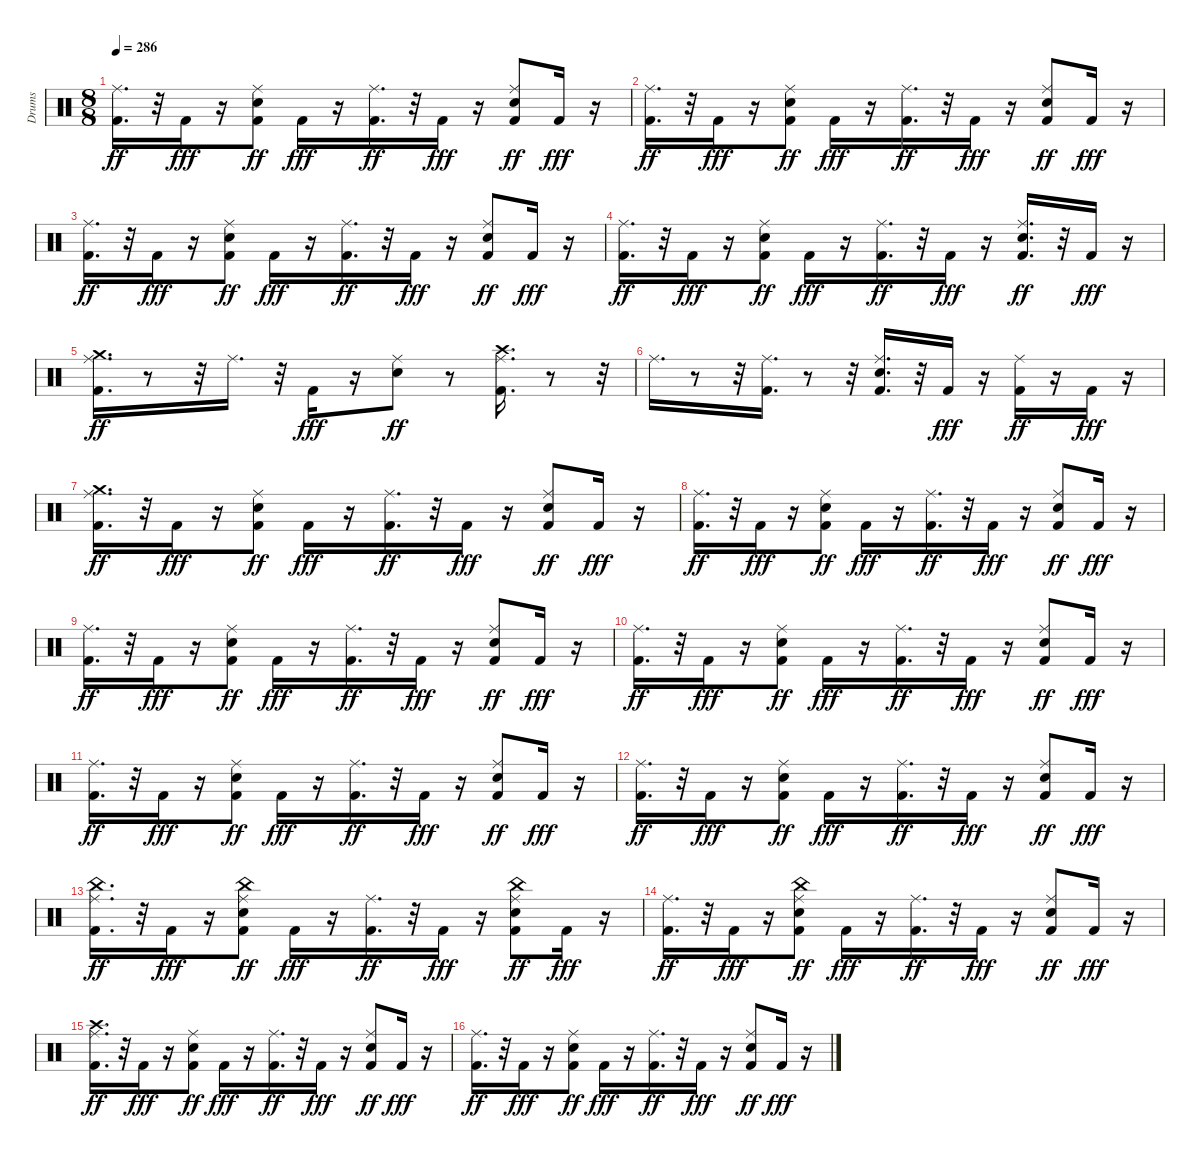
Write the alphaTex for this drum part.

\track ("Drums" "Drums") {instrument percussion}
\staff {score}
\articulation defaults
\ts (8 8)
\tempo 286
\clef neutral
\ks c
("Kick (hit) 2" "Ride (middle)").16{d dy ff} r.32 "Kick (hit) 2".16{dy fff} r.16 ("Kick (hit) 2" "Snare (hit) 2" "Ride (middle)").8{dy ff} "Kick (hit) 2".16{dy fff} r.16 ("Kick (hit) 2" "Ride (middle)").16{d dy ff} r.32 "Kick (hit) 2".16{dy fff} r.16 ("Kick (hit) 2" "Snare (hit) 2" "Ride (middle)").8{dy ff} "Kick (hit) 2".16{dy fff} r.16 |
("Kick (hit) 2" "Ride (middle)").16{d dy ff} r.32 "Kick (hit) 2".16{dy fff} r.16 ("Kick (hit) 2" "Snare (hit) 2" "Ride (middle)").8{dy ff} "Kick (hit) 2".16{dy fff} r.16 ("Kick (hit) 2" "Ride (middle)").16{d dy ff} r.32 "Kick (hit) 2".16{dy fff} r.16 ("Kick (hit) 2" "Snare (hit) 2" "Ride (middle)").8{dy ff} "Kick (hit) 2".16{dy fff} r.16 |
("Kick (hit) 2" "Ride (middle)").16{d dy ff} r.32 "Kick (hit) 2".16{dy fff} r.16 ("Kick (hit) 2" "Snare (hit) 2" "Ride (middle)").8{dy ff} "Kick (hit) 2".16{dy fff} r.16 ("Kick (hit) 2" "Ride (middle)").16{d dy ff} r.32 "Kick (hit) 2".16{dy fff} r.16 ("Kick (hit) 2" "Snare (hit) 2" "Ride (middle)").8{dy ff} "Kick (hit) 2".16{dy fff} r.16 |
("Kick (hit) 2" "Ride (middle)").16{d dy ff} r.32 "Kick (hit) 2".16{dy fff} r.16 ("Kick (hit) 2" "Snare (hit) 2" "Ride (middle)").8{dy ff} "Kick (hit) 2".16{dy fff} r.16 ("Kick (hit) 2" "Ride (middle)").16{d dy ff} r.32 "Kick (hit) 2".16{dy fff} r.16 ("Kick (hit) 2" "Snare (hit) 2" "Ride (middle)").16{d dy ff} r.32 "Kick (hit) 2".16{dy fff} r.16 |
("Kick (hit) 2" "Ride (middle)" "Crash medium (hit)").16{d dy ff} r.8 r.32 "Ride (middle)".16{d} r.32 "Kick (hit) 2".16{dy fff} r.16 ("Snare (hit) 2" "Ride (middle)").8{dy ff} r.8 ("Kick (hit) 2" "Ride (middle)" "Crash high (hit)").16{d} r.8 r.32 |
"Ride (middle)".16{d} r.8 r.32 ("Kick (hit) 2" "Ride (middle)").16{d} r.8 r.32 ("Kick (hit) 2" "Snare (hit) 2" "Ride (middle)").16{d} r.32 "Kick (hit) 2".16{dy fff} r.16 ("Kick (hit) 2" "Ride (middle)").16{dy ff} r.16 "Kick (hit) 2".16{dy fff} r.16 |
("Kick (hit) 2" "Ride (middle)" "Crash medium (hit)").16{d dy ff} r.32 "Kick (hit) 2".16{dy fff} r.16 ("Kick (hit) 2" "Snare (hit) 2" "Ride (middle)").8{dy ff} "Kick (hit) 2".16{dy fff} r.16 ("Kick (hit) 2" "Ride (middle)").16{d dy ff} r.32 "Kick (hit) 2".16{dy fff} r.16 ("Kick (hit) 2" "Snare (hit) 2" "Ride (middle)").8{dy ff} "Kick (hit) 2".16{dy fff} r.16 |
("Kick (hit) 2" "Ride (middle)").16{d dy ff} r.32 "Kick (hit) 2".16{dy fff} r.16 ("Kick (hit) 2" "Snare (hit) 2" "Ride (middle)").8{dy ff} "Kick (hit) 2".16{dy fff} r.16 ("Kick (hit) 2" "Ride (middle)").16{d dy ff} r.32 "Kick (hit) 2".16{dy fff} r.16 ("Kick (hit) 2" "Snare (hit) 2" "Ride (middle)").8{dy ff} "Kick (hit) 2".16{dy fff} r.16 |
("Kick (hit) 2" "Ride (middle)").16{d dy ff} r.32 "Kick (hit) 2".16{dy fff} r.16 ("Kick (hit) 2" "Snare (hit) 2" "Ride (middle)").8{dy ff} "Kick (hit) 2".16{dy fff} r.16 ("Kick (hit) 2" "Ride (middle)").16{d dy ff} r.32 "Kick (hit) 2".16{dy fff} r.16 ("Kick (hit) 2" "Snare (hit) 2" "Ride (middle)").8{dy ff} "Kick (hit) 2".16{dy fff} r.16 |
("Kick (hit) 2" "Ride (middle)").16{d dy ff} r.32 "Kick (hit) 2".16{dy fff} r.16 ("Kick (hit) 2" "Snare (hit) 2" "Ride (middle)").8{dy ff} "Kick (hit) 2".16{dy fff} r.16 ("Kick (hit) 2" "Ride (middle)").16{d dy ff} r.32 "Kick (hit) 2".16{dy fff} r.16 ("Kick (hit) 2" "Snare (hit) 2" "Ride (middle)").8{dy ff} "Kick (hit) 2".16{dy fff} r.16 |
("Kick (hit) 2" "Ride (middle)").16{d dy ff} r.32 "Kick (hit) 2".16{dy fff} r.16 ("Kick (hit) 2" "Snare (hit) 2" "Ride (middle)").8{dy ff} "Kick (hit) 2".16{dy fff} r.16 ("Kick (hit) 2" "Ride (middle)").16{d dy ff} r.32 "Kick (hit) 2".16{dy fff} r.16 ("Kick (hit) 2" "Snare (hit) 2" "Ride (middle)").8{dy ff} "Kick (hit) 2".16{dy fff} r.16 |
("Kick (hit) 2" "Ride (middle)").16{d dy ff} r.32 "Kick (hit) 2".16{dy fff} r.16 ("Kick (hit) 2" "Snare (hit) 2" "Ride (middle)").8{dy ff} "Kick (hit) 2".16{dy fff} r.16 ("Kick (hit) 2" "Ride (middle)").16{d dy ff} r.32 "Kick (hit) 2".16{dy fff} r.16 ("Kick (hit) 2" "Snare (hit) 2" "Ride (middle)").8{dy ff} "Kick (hit) 2".16{dy fff} r.16 |
("Kick (hit) 2" "Ride (middle)" "China (hit)").16{d dy ff} r.32 "Kick (hit) 2".16{dy fff} r.16 ("Kick (hit) 2" "Snare (hit) 2" "Ride (middle)" "China (hit)").8{dy ff} "Kick (hit) 2".16{dy fff} r.16 ("Kick (hit) 2" "Ride (middle)").16{d dy ff} r.32 "Kick (hit) 2".16{dy fff} r.16 ("Kick (hit) 2" "Snare (hit) 2" "Ride (middle)" "China (hit)").8{dy ff} "Kick (hit) 2".16{dy fff} r.16 |
("Kick (hit) 2" "Ride (middle)").16{d dy ff} r.32 "Kick (hit) 2".16{dy fff} r.16 ("Kick (hit) 2" "Snare (hit) 2" "Ride (middle)" "China (hit)").8{dy ff} "Kick (hit) 2".16{dy fff} r.16 ("Kick (hit) 2" "Ride (middle)").16{d dy ff} r.32 "Kick (hit) 2".16{dy fff} r.16 ("Kick (hit) 2" "Snare (hit) 2" "Ride (middle)").8{dy ff} "Kick (hit) 2".16{dy fff} r.16 |
("Kick (hit) 2" "Ride (middle)" "Crash high (hit)").16{d dy ff} r.32 "Kick (hit) 2".16{dy fff} r.16 ("Kick (hit) 2" "Snare (hit) 2" "Ride (middle)").8{dy ff} "Kick (hit) 2".16{dy fff} r.16 ("Kick (hit) 2" "Ride (middle)").16{d dy ff} r.32 "Kick (hit) 2".16{dy fff} r.16 ("Kick (hit) 2" "Snare (hit) 2" "Ride (middle)").8{dy ff} "Kick (hit) 2".16{dy fff} r.16 |
("Kick (hit) 2" "Ride (middle)").16{d dy ff} r.32 "Kick (hit) 2".16{dy fff} r.16 ("Kick (hit) 2" "Snare (hit) 2" "Ride (middle)").8{dy ff} "Kick (hit) 2".16{dy fff} r.16 ("Kick (hit) 2" "Ride (middle)").16{d dy ff} r.32 "Kick (hit) 2".16{dy fff} r.16 ("Kick (hit) 2" "Snare (hit) 2" "Ride (middle)").8{dy ff} "Kick (hit) 2".16{dy fff} r.16
